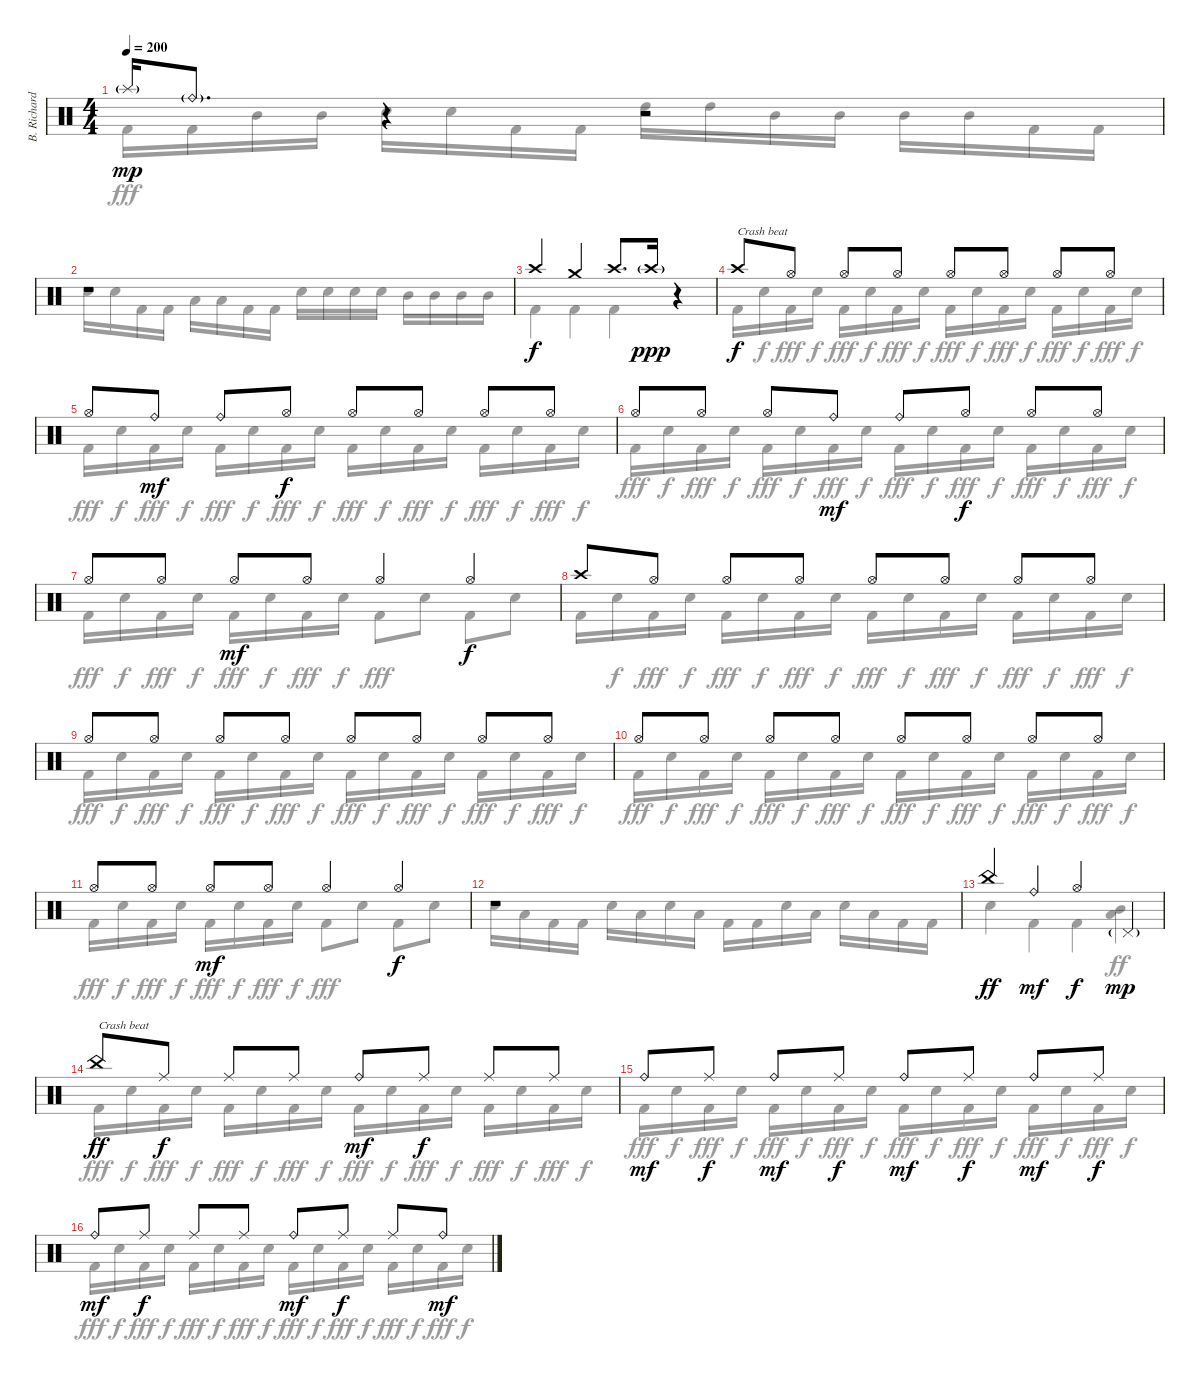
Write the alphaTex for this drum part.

\track ("B. Richardson Drums" "B. Richard") {instrument percussion}
\staff {score}
\articulation defaults
\voice
\ts (4 4)
\tempo 200
\clef neutral
\ks c "Splash (hit)"{g}.16{dy mp} "Ride (bell)"{g}.8{d}
r.4 r.2 |
r.1 |
"Crash high (hit)".4{dy f} "Crash medium (hit)".4 "Crash high (hit)".8{d} "Crash high (hit)"{g}.16{dy ppp} r.4 |
"Crash high (hit)".8{txt "Crash beat" dy f} "Hi-Hat (open)".8 "Hi-Hat (open)".8 "Hi-Hat (open)".8 "Hi-Hat (open)".8 "Hi-Hat (open)".8 "Hi-Hat (open)".8 "Hi-Hat (open)".8 |
"Hi-Hat (open)".8 "Ride (bell)".8{dy mf} "Ride (bell)".8 "Hi-Hat (open)".8{dy f} "Hi-Hat (open)".8 "Hi-Hat (open)".8 "Hi-Hat (open)".8 "Hi-Hat (open)".8 |
"Hi-Hat (open)".8 "Hi-Hat (open)".8 "Hi-Hat (open)".8 "Ride (bell)".8{dy mf} "Ride (bell)".8 "Hi-Hat (open)".8{dy f} "Hi-Hat (open)".8 "Hi-Hat (open)".8 |
"Hi-Hat (open)".8 "Hi-Hat (open)".8 "Hi-Hat (open)".8{dy mf} "Hi-Hat (open)".8 "Hi-Hat (open)".4 "Hi-Hat (open)".4{dy f} |
"Crash high (hit)".8 "Hi-Hat (open)".8 "Hi-Hat (open)".8 "Hi-Hat (open)".8 "Hi-Hat (open)".8 "Hi-Hat (open)".8 "Hi-Hat (open)".8 "Hi-Hat (open)".8 |
"Hi-Hat (open)".8 "Hi-Hat (open)".8 "Hi-Hat (open)".8 "Hi-Hat (open)".8 "Hi-Hat (open)".8 "Hi-Hat (open)".8 "Hi-Hat (open)".8 "Hi-Hat (open)".8 |
"Hi-Hat (open)".8 "Hi-Hat (open)".8 "Hi-Hat (open)".8 "Hi-Hat (open)".8 "Hi-Hat (open)".8 "Hi-Hat (open)".8 "Hi-Hat (open)".8 "Hi-Hat (open)".8 |
"Hi-Hat (open)".8 "Hi-Hat (open)".8 "Hi-Hat (open)".8{dy mf} "Hi-Hat (open)".8 "Hi-Hat (open)".4 "Hi-Hat (open)".4{dy f} |
r.1 |
"China (hit)".4{dy ff} "Ride (bell)".4{dy mf} "Hi-Hat (open)".4{dy f} "Pedal Hi-Hat (hit)"{g}.4{dy mp} |
"China (hit)".8{txt "Crash beat" dy ff} "Ride (middle)".8{dy f} "Ride (middle)".8 "Ride (middle)".8 "Ride (bell)".8{dy mf} "Ride (middle)".8{dy f} "Ride (middle)".8 "Ride (middle)".8 |
"Ride (bell)".8{dy mf} "Ride (middle)".8{dy f} "Ride (bell)".8{dy mf} "Ride (middle)".8{dy f} "Ride (bell)".8{dy mf} "Ride (middle)".8{dy f} "Ride (bell)".8{dy mf} "Ride (middle)".8{dy f} |
"Ride (bell)".8{dy mf} "Ride (middle)".8{dy f} "Ride (middle)".8 "Ride (middle)".8 "Ride (bell)".8{dy mf} "Ride (middle)".8{dy f} "Ride (middle)".8 "Ride (bell)".8{dy mf}
\voice
\clef neutral
\ottava regular
\simile none
\ks c "Kick (hit) 2".16{dy fff} "Kick (hit) 2".16 "Mid Tom (hit)".16 "Mid Tom (hit)".16 "Electric Snare (hit)".16 "Electric Snare (hit)".16 "Kick (hit) 2".16 "Kick (hit) 2".16 "High Tom (hit)".16 "High Tom (hit)".16 "Mid Tom (hit)".16 "Mid Tom (hit)".16 "Mid Tom (hit)".16 "Mid Tom (hit)".16 "Kick (hit) 2".16 "Kick (hit) 2".16
|
"Electric Snare (hit)".16 "Electric Snare (hit)".16 "Kick (hit) 2".16 "Kick (hit) 2".16 "Low Tom (hit)".16 "Low Tom (hit)".16 "Kick (hit) 2".16 "Kick (hit) 2".16 "Electric Snare (hit)".16 "Electric Snare (hit)".16 "Electric Snare (hit)".16 "Electric Snare (hit)".16 "Mid Tom (hit)".16 "Mid Tom (hit)".16 "Mid Tom (hit)".16 "Mid Tom (hit)".16 |
"Kick (hit) 2".4 "Kick (hit) 2".4 "Kick (hit) 2".4 r.4 |
"Kick (hit) 2".16 "Electric Snare (hit)".16{dy f} "Kick (hit) 2".16{dy fff} "Electric Snare (hit)".16{dy f} "Kick (hit) 2".16{dy fff} "Electric Snare (hit)".16{dy f} "Kick (hit) 2".16{dy fff} "Electric Snare (hit)".16{dy f} "Kick (hit) 2".16{dy fff} "Electric Snare (hit)".16{dy f} "Kick (hit) 2".16{dy fff} "Electric Snare (hit)".16{dy f} "Kick (hit) 2".16{dy fff} "Electric Snare (hit)".16{dy f} "Kick (hit) 2".16{dy fff} "Electric Snare (hit)".16{dy f} |
"Kick (hit) 2".16{dy fff} "Electric Snare (hit)".16{dy f} "Kick (hit) 2".16{dy fff} "Electric Snare (hit)".16{dy f} "Kick (hit) 2".16{dy fff} "Electric Snare (hit)".16{dy f} "Kick (hit) 2".16{dy fff} "Electric Snare (hit)".16{dy f} "Kick (hit) 2".16{dy fff} "Electric Snare (hit)".16{dy f} "Kick (hit) 2".16{dy fff} "Electric Snare (hit)".16{dy f} "Kick (hit) 2".16{dy fff} "Electric Snare (hit)".16{dy f} "Kick (hit) 2".16{dy fff} "Electric Snare (hit)".16{dy f} |
"Kick (hit) 2".16{dy fff} "Electric Snare (hit)".16{dy f} "Kick (hit) 2".16{dy fff} "Electric Snare (hit)".16{dy f} "Kick (hit) 2".16{dy fff} "Electric Snare (hit)".16{dy f} "Kick (hit) 2".16{dy fff} "Electric Snare (hit)".16{dy f} "Kick (hit) 2".16{dy fff} "Electric Snare (hit)".16{dy f} "Kick (hit) 2".16{dy fff} "Electric Snare (hit)".16{dy f} "Kick (hit) 2".16{dy fff} "Electric Snare (hit)".16{dy f} "Kick (hit) 2".16{dy fff} "Electric Snare (hit)".16{dy f} |
"Kick (hit) 2".16{dy fff} "Electric Snare (hit)".16{dy f} "Kick (hit) 2".16{dy fff} "Electric Snare (hit)".16{dy f} "Kick (hit) 2".16{dy fff} "Electric Snare (hit)".16{dy f} "Kick (hit) 2".16{dy fff} "Electric Snare (hit)".16{dy f} "Kick (hit) 2".8{dy fff} "Electric Snare (hit)".8 "Kick (hit) 2".8 "Electric Snare (hit)".8 |
"Kick (hit) 2".16 "Electric Snare (hit)".16{dy f} "Kick (hit) 2".16{dy fff} "Electric Snare (hit)".16{dy f} "Kick (hit) 2".16{dy fff} "Electric Snare (hit)".16{dy f} "Kick (hit) 2".16{dy fff} "Electric Snare (hit)".16{dy f} "Kick (hit) 2".16{dy fff} "Electric Snare (hit)".16{dy f} "Kick (hit) 2".16{dy fff} "Electric Snare (hit)".16{dy f} "Kick (hit) 2".16{dy fff} "Electric Snare (hit)".16{dy f} "Kick (hit) 2".16{dy fff} "Electric Snare (hit)".16{dy f} |
"Kick (hit) 2".16{dy fff} "Electric Snare (hit)".16{dy f} "Kick (hit) 2".16{dy fff} "Electric Snare (hit)".16{dy f} "Kick (hit) 2".16{dy fff} "Electric Snare (hit)".16{dy f} "Kick (hit) 2".16{dy fff} "Electric Snare (hit)".16{dy f} "Kick (hit) 2".16{dy fff} "Electric Snare (hit)".16{dy f} "Kick (hit) 2".16{dy fff} "Electric Snare (hit)".16{dy f} "Kick (hit) 2".16{dy fff} "Electric Snare (hit)".16{dy f} "Kick (hit) 2".16{dy fff} "Electric Snare (hit)".16{dy f} |
"Kick (hit) 2".16{dy fff} "Electric Snare (hit)".16{dy f} "Kick (hit) 2".16{dy fff} "Electric Snare (hit)".16{dy f} "Kick (hit) 2".16{dy fff} "Electric Snare (hit)".16{dy f} "Kick (hit) 2".16{dy fff} "Electric Snare (hit)".16{dy f} "Kick (hit) 2".16{dy fff} "Electric Snare (hit)".16{dy f} "Kick (hit) 2".16{dy fff} "Electric Snare (hit)".16{dy f} "Kick (hit) 2".16{dy fff} "Electric Snare (hit)".16{dy f} "Kick (hit) 2".16{dy fff} "Electric Snare (hit)".16{dy f} |
"Kick (hit) 2".16{dy fff} "Electric Snare (hit)".16{dy f} "Kick (hit) 2".16{dy fff} "Electric Snare (hit)".16{dy f} "Kick (hit) 2".16{dy fff} "Electric Snare (hit)".16{dy f} "Kick (hit) 2".16{dy fff} "Electric Snare (hit)".16{dy f} "Kick (hit) 2".8{dy fff} "Electric Snare (hit)".8 "Kick (hit) 2".8 "Electric Snare (hit)".8 |
"Electric Snare (hit)".16 "Low Tom (hit)".16 "Kick (hit) 2".16 "Kick (hit) 2".16 "Electric Snare (hit)".16 "Low Tom (hit)".16 "Electric Snare (hit)".16 "Low Tom (hit)".16 "Kick (hit) 2".16 "Kick (hit) 2".16 "Electric Snare (hit)".16 "Low Tom (hit)".16 "Electric Snare (hit)".16 "Low Tom (hit)".16 "Kick (hit) 2".16 "Kick (hit) 2".16 |
"Electric Snare (hit)".4 "Kick (hit) 2".4 "Kick (hit) 2".4 ("Mid Tom (hit)" "Low Tom (hit)").4{dy ff} |
"Kick (hit) 2".16{dy fff} "Electric Snare (hit)".16{dy f} "Kick (hit) 2".16{dy fff} "Electric Snare (hit)".16{dy f} "Kick (hit) 2".16{dy fff} "Electric Snare (hit)".16{dy f} "Kick (hit) 2".16{dy fff} "Electric Snare (hit)".16{dy f} "Kick (hit) 2".16{dy fff} "Electric Snare (hit)".16{dy f} "Kick (hit) 2".16{dy fff} "Electric Snare (hit)".16{dy f} "Kick (hit) 2".16{dy fff} "Electric Snare (hit)".16{dy f} "Kick (hit) 2".16{dy fff} "Electric Snare (hit)".16{dy f} |
"Kick (hit) 2".16{dy fff} "Electric Snare (hit)".16{dy f} "Kick (hit) 2".16{dy fff} "Electric Snare (hit)".16{dy f} "Kick (hit) 2".16{dy fff} "Electric Snare (hit)".16{dy f} "Kick (hit) 2".16{dy fff} "Electric Snare (hit)".16{dy f} "Kick (hit) 2".16{dy fff} "Electric Snare (hit)".16{dy f} "Kick (hit) 2".16{dy fff} "Electric Snare (hit)".16{dy f} "Kick (hit) 2".16{dy fff} "Electric Snare (hit)".16{dy f} "Kick (hit) 2".16{dy fff} "Electric Snare (hit)".16{dy f} |
"Kick (hit) 2".16{dy fff} "Electric Snare (hit)".16{dy f} "Kick (hit) 2".16{dy fff} "Electric Snare (hit)".16{dy f} "Kick (hit) 2".16{dy fff} "Electric Snare (hit)".16{dy f} "Kick (hit) 2".16{dy fff} "Electric Snare (hit)".16{dy f} "Kick (hit) 2".16{dy fff} "Electric Snare (hit)".16{dy f} "Kick (hit) 2".16{dy fff} "Electric Snare (hit)".16{dy f} "Kick (hit) 2".16{dy fff} "Electric Snare (hit)".16{dy f} "Kick (hit) 2".16{dy fff} "Electric Snare (hit)".16{dy f}
